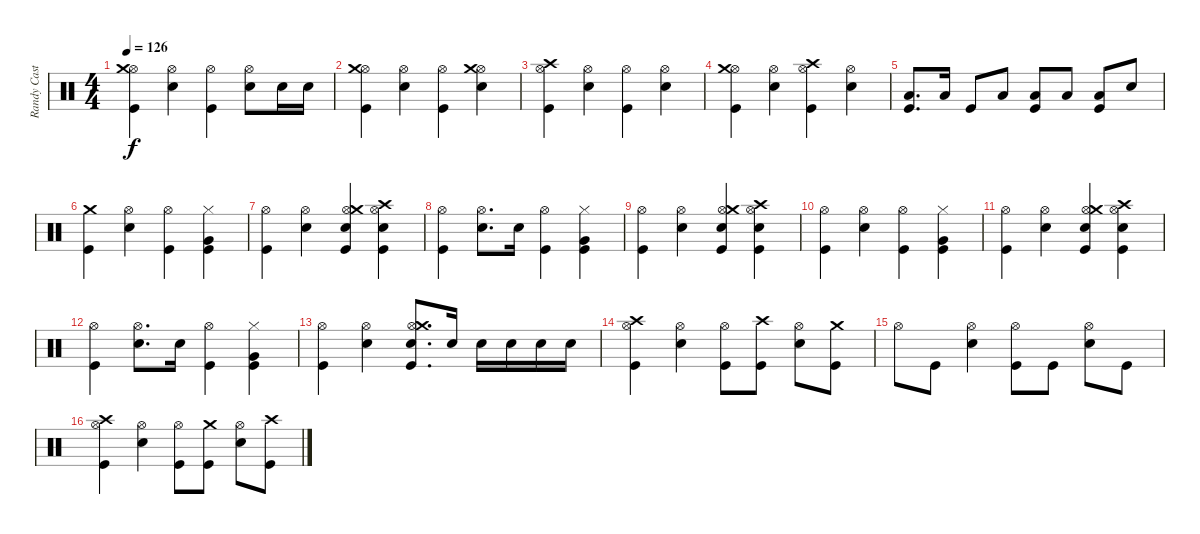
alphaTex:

\track ("Randy Castillo" "Randy Cast") {instrument percussion}
\staff {score}
\articulation defaults
\ts (4 4)
\tempo 126
\clef neutral
\ks c
("Kick (hit)" "Hi-Hat (open)" "Crash medium (hit)").4{dy f} ("Snare (hit) 2" "Hi-Hat (open)").4 ("Kick (hit)" "Hi-Hat (open)").4 ("Snare (hit) 2" "Hi-Hat (open)").8 "Snare (hit) 2".16 "Snare (hit) 2".16 |
("Kick (hit)" "Hi-Hat (open)" "Crash medium (hit)").4 ("Snare (hit) 2" "Hi-Hat (open)").4 ("Kick (hit)" "Hi-Hat (open)").4 ("Snare (hit) 2" "Hi-Hat (open)" "Crash medium (hit)").4 |
("Kick (hit)" "Hi-Hat (open)" "Crash high (hit)").4 ("Snare (hit) 2" "Hi-Hat (open)").4 ("Kick (hit)" "Hi-Hat (open)").4 ("Snare (hit) 2" "Hi-Hat (open)").4 |
("Kick (hit)" "Hi-Hat (open)" "Crash medium (hit)").4 ("Snare (hit) 2" "Hi-Hat (open)").4 ("Kick (hit)" "Hi-Hat (open)" "Crash high (hit)").4 ("Snare (hit) 2" "Hi-Hat (open)").4 |
("Kick (hit)" "Low Tom (hit)").8{d} "Low Tom (hit)".16 "Kick (hit)".8 "Low Tom (hit)".8 ("Kick (hit)" "Low Tom (hit)").8 "Low Tom (hit)".8 ("Kick (hit)" "Low Tom (hit)").8 "Snare (hit) 2".8 |
("Kick (hit)" "Crash medium (hit)").4 ("Snare (hit) 2" "Hi-Hat (open)").4 ("Kick (hit)" "Hi-Hat (open)").4 ("Kick (hit)" "Very Low Tom (hit)" "Hi-Hat (closed)").4{volume 12} |
("Kick (hit)" "Hi-Hat (open)").4{volume 16} ("Snare (hit) 2" "Hi-Hat (open)").4 ("Kick (hit)" "Snare (hit) 2" "Hi-Hat (open)" "Crash medium (hit)").4 ("Kick (hit)" "Snare (hit) 2" "Hi-Hat (open)" "Crash high (hit)").4 |
("Kick (hit)" "Hi-Hat (open)").4 ("Snare (hit) 2" "Hi-Hat (open)").8{d} "Snare (hit) 2".16 ("Kick (hit)" "Hi-Hat (open)").4 ("Kick (hit)" "Very Low Tom (hit)" "Hi-Hat (closed)").4{volume 12} |
("Kick (hit)" "Hi-Hat (open)").4{volume 16} ("Snare (hit) 2" "Hi-Hat (open)").4 ("Kick (hit)" "Snare (hit) 2" "Hi-Hat (open)" "Crash medium (hit)").4 ("Kick (hit)" "Snare (hit) 2" "Hi-Hat (open)" "Crash high (hit)").4 |
("Kick (hit)" "Hi-Hat (open)").4 ("Snare (hit) 2" "Hi-Hat (open)").4 ("Kick (hit)" "Hi-Hat (open)").4 ("Kick (hit)" "Very Low Tom (hit)" "Hi-Hat (closed)").4{volume 12} |
("Kick (hit)" "Hi-Hat (open)").4{volume 16} ("Snare (hit) 2" "Hi-Hat (open)").4 ("Kick (hit)" "Snare (hit) 2" "Hi-Hat (open)" "Crash medium (hit)").4 ("Kick (hit)" "Snare (hit) 2" "Hi-Hat (open)" "Crash high (hit)").4 |
("Kick (hit)" "Hi-Hat (open)").4 ("Snare (hit) 2" "Hi-Hat (open)").8{d} "Snare (hit) 2".16 ("Kick (hit)" "Hi-Hat (open)").4 ("Kick (hit)" "Very Low Tom (hit)" "Hi-Hat (closed)").4{volume 12} |
("Kick (hit)" "Hi-Hat (open)").4{volume 16} ("Snare (hit) 2" "Hi-Hat (open)").4 ("Kick (hit)" "Snare (hit) 2" "Hi-Hat (open)" "Crash medium (hit)").8{d} "Snare (hit) 2".16 "Snare (hit) 2".16 "Snare (hit) 2".16 "Snare (hit) 2".16 "Snare (hit) 2".16 |
("Kick (hit)" "Hi-Hat (open)" "Crash high (hit)").4 ("Snare (hit) 2" "Hi-Hat (open)").4 ("Kick (hit)" "Hi-Hat (open)").8 ("Kick (hit)" "Crash high (hit)").8 ("Snare (hit) 2" "Hi-Hat (open)").8 ("Kick (hit)" "Crash medium (hit)").8 |
"Hi-Hat (open)".8 "Kick (hit)".8 ("Snare (hit) 2" "Hi-Hat (open)").4 ("Kick (hit)" "Hi-Hat (open)").8 "Kick (hit)".8 ("Snare (hit) 2" "Hi-Hat (open)").8 "Kick (hit)".8 |
("Kick (hit)" "Hi-Hat (open)" "Crash high (hit)").4 ("Snare (hit) 2" "Hi-Hat (open)").4 ("Kick (hit)" "Hi-Hat (open)").8 ("Kick (hit)" "Crash medium (hit)").8 ("Snare (hit) 2" "Hi-Hat (open)").8 ("Kick (hit)" "Crash high (hit)").8
